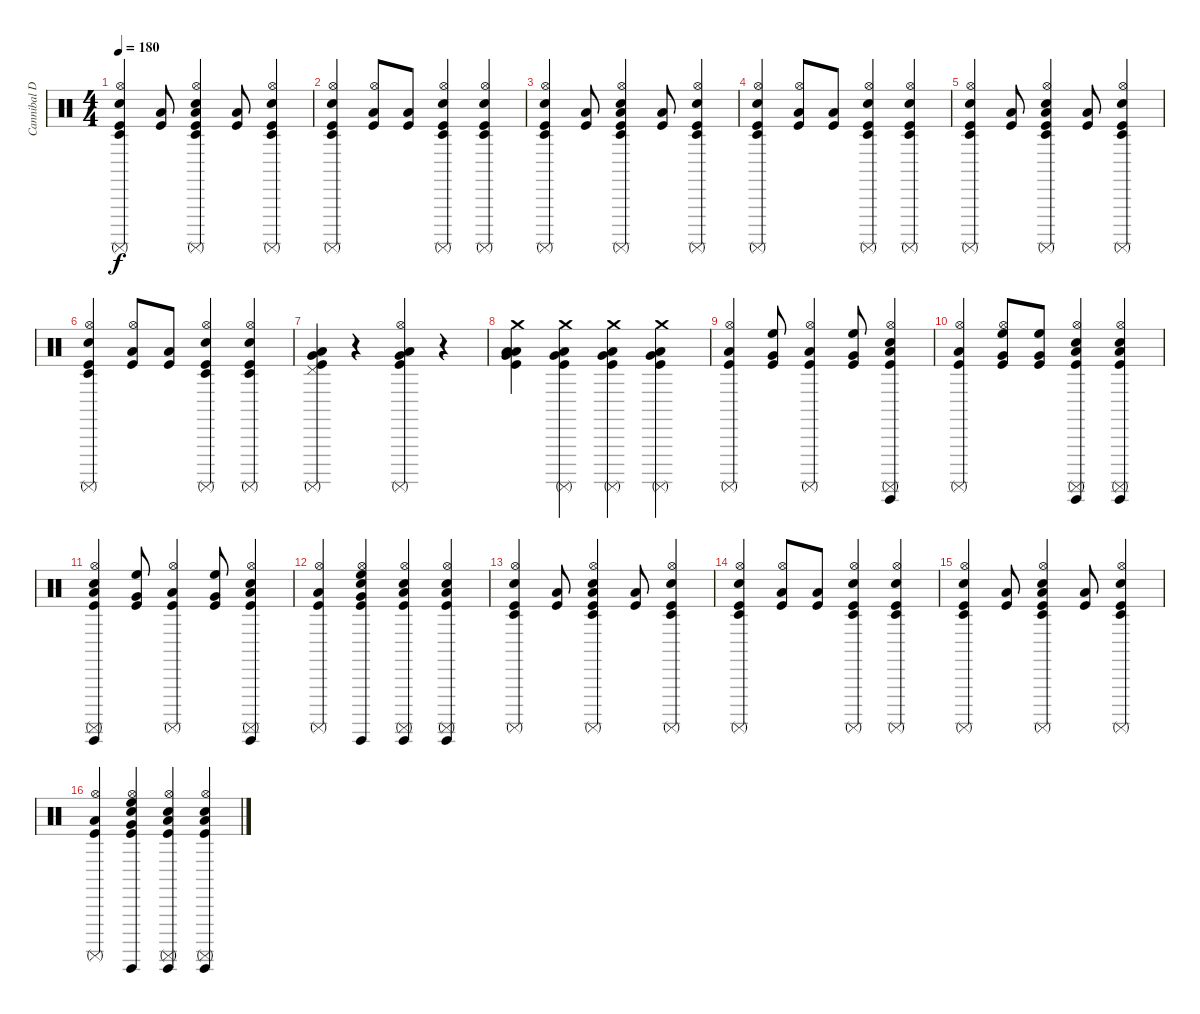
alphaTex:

\track ("Cannibal Drums :)" "Cannibal D") {instrument percussion}
\staff {score}
\articulation defaults
\ts (4 4)
\tempo 180
\clef neutral
\ks c
("Kick (hit)" "Hi-Hat (open)" "Surdo (mute)" "Timbale low (hit)" "Snare (hit) 2").4{dy f} ("Kick (hit)" "Low Floor Tom (hit)").8 ("Kick (hit)" "Hi-Hat (open)" "Timbale low (hit)" "Low Tom (hit)" "Snare (hit) 2" "Surdo (mute)").4 ("Kick (hit)" "Low Floor Tom (hit)").8 ("Kick (hit)" "Hi-Hat (open)" "Timbale low (hit)" "Surdo (mute)" "Snare (hit) 2").4 |
("Kick (hit)" "Hi-Hat (open)" "Timbale low (hit)" "Surdo (mute)" "Snare (hit) 2").4 ("Kick (hit)" "Hi-Hat (open)" "Low Floor Tom (hit)").8 ("Kick (hit)" "Low Floor Tom (hit)").8 ("Kick (hit)" "Hi-Hat (open)" "Timbale low (hit)" "Surdo (mute)" "Snare (hit) 2").4 ("Kick (hit)" "Hi-Hat (open)" "Timbale low (hit)" "Surdo (mute)" "Snare (hit) 2").4 |
("Kick (hit)" "Hi-Hat (open)" "Surdo (mute)" "Timbale low (hit)" "Snare (hit) 2").4 ("Kick (hit)" "Low Floor Tom (hit)").8 ("Kick (hit)" "Hi-Hat (open)" "Timbale low (hit)" "Low Tom (hit)" "Snare (hit) 2" "Surdo (mute)").4 ("Kick (hit)" "Low Floor Tom (hit)").8 ("Kick (hit)" "Hi-Hat (open)" "Timbale low (hit)" "Surdo (mute)" "Snare (hit) 2").4 |
("Kick (hit)" "Hi-Hat (open)" "Timbale low (hit)" "Surdo (mute)" "Snare (hit) 2").4 ("Kick (hit)" "Hi-Hat (open)" "Low Floor Tom (hit)").8 ("Kick (hit)" "Low Floor Tom (hit)").8 ("Kick (hit)" "Hi-Hat (open)" "Timbale low (hit)" "Surdo (mute)" "Snare (hit) 2").4 ("Kick (hit)" "Hi-Hat (open)" "Timbale low (hit)" "Surdo (mute)" "Snare (hit) 2").4 |
("Kick (hit)" "Hi-Hat (open)" "Surdo (mute)" "Timbale low (hit)" "Snare (hit) 2").4 ("Kick (hit)" "Low Floor Tom (hit)").8 ("Kick (hit)" "Hi-Hat (open)" "Timbale low (hit)" "Low Tom (hit)" "Snare (hit) 2" "Surdo (mute)").4 ("Kick (hit)" "Low Floor Tom (hit)").8 ("Kick (hit)" "Hi-Hat (open)" "Timbale low (hit)" "Surdo (mute)" "Snare (hit) 2").4 |
("Kick (hit)" "Hi-Hat (open)" "Timbale low (hit)" "Surdo (mute)" "Snare (hit) 2").4 ("Kick (hit)" "Hi-Hat (open)" "Low Floor Tom (hit)").8 ("Kick (hit)" "Low Floor Tom (hit)").8 ("Kick (hit)" "Hi-Hat (open)" "Timbale low (hit)" "Surdo (mute)" "Snare (hit) 2").4 ("Kick (hit)" "Hi-Hat (open)" "Timbale low (hit)" "Surdo (mute)" "Snare (hit) 2").4 |
("Kick (hit)" "Pedal Hi-Hat (hit)" "Low Tom (hit)" "Surdo (mute)" "Very Low Tom (hit)").4 r.4 ("Kick (hit)" "Hi-Hat (open)" "Low Tom (hit)" "Surdo (mute)" "Very Low Tom (hit)").4 r.4 |
("Kick (hit)" "Crash medium (hit)" "Low Tom (hit)" "Low Floor Tom (hit)" "Very Low Tom (hit)").4 ("Kick (hit)" "Crash medium (hit)" "Low Tom (hit)" "Surdo (mute)" "Very Low Tom (hit)").4 ("Kick (hit)" "Crash medium (hit)" "Low Tom (hit)" "Surdo (mute)" "Very Low Tom (hit)").4 ("Kick (hit)" "Crash medium (hit)" "Low Tom (hit)" "Surdo (mute)" "Very Low Tom (hit)").4 |
("Kick (hit)" "Hi-Hat (open)" "Low Tom (hit)" "Surdo (mute)").4 ("Kick (hit)" "High Floor Tom (hit)" "Very Low Tom (hit)").8 ("Kick (hit)" "Hi-Hat (open)" "Low Tom (hit)" "Surdo (mute)").4 ("Kick (hit)" "High Floor Tom (hit)" "Very Low Tom (hit)").8 ("Kick (hit)" "Hand Clap (hit)" "Guiro (hit)" "Low Tom (hit)" "Surdo (mute)" "Hi-Hat (open)").4 |
("Kick (hit)" "Low Tom (hit)" "Surdo (mute)" "Hi-Hat (open)").4 ("Kick (hit)" "High Floor Tom (hit)" "Very Low Tom (hit)" "Hi-Hat (open)").8 ("Kick (hit)" "High Floor Tom (hit)" "Very Low Tom (hit)").8 ("Kick (hit)" "Hand Clap (hit)" "Guiro (hit)" "Low Tom (hit)" "Surdo (mute)" "Hi-Hat (open)").4 ("Kick (hit)" "Hand Clap (hit)" "Guiro (hit)" "Low Tom (hit)" "Surdo (mute)" "Hi-Hat (open)").4 |
("Kick (hit)" "Hand Clap (hit)" "Guiro (hit)" "Low Tom (hit)" "Surdo (mute)" "Hi-Hat (open)").4 ("Kick (hit)" "High Floor Tom (hit)" "Very Low Tom (hit)").8 ("Kick (hit)" "Low Tom (hit)" "Hi-Hat (open)" "Surdo (mute)").4 ("Kick (hit)" "High Floor Tom (hit)" "Very Low Tom (hit)").8 ("Kick (hit)" "Hand Clap (hit)" "Guiro (hit)" "Low Tom (hit)" "Surdo (mute)" "Hi-Hat (open)").4 |
("Kick (hit)" "Low Tom (hit)" "Surdo (mute)" "Hi-Hat (open)").4 ("Kick (hit)" "Hand Clap (hit)" "Guiro (hit)" "High Floor Tom (hit)" "Very Low Tom (hit)" "Hi-Hat (open)").4 ("Kick (hit)" "Hand Clap (hit)" "Guiro (hit)" "Low Tom (hit)" "Surdo (mute)" "Hi-Hat (open)").4 ("Kick (hit)" "Hand Clap (hit)" "Guiro (hit)" "Low Tom (hit)" "Surdo (mute)" "Hi-Hat (open)").4 |
("Kick (hit)" "Hi-Hat (open)" "Surdo (mute)" "Timbale low (hit)" "Snare (hit) 2").4 ("Kick (hit)" "Low Floor Tom (hit)").8 ("Kick (hit)" "Hi-Hat (open)" "Timbale low (hit)" "Low Tom (hit)" "Snare (hit) 2" "Surdo (mute)").4 ("Kick (hit)" "Low Floor Tom (hit)").8 ("Kick (hit)" "Hi-Hat (open)" "Timbale low (hit)" "Surdo (mute)" "Snare (hit) 2").4 |
("Kick (hit)" "Hi-Hat (open)" "Timbale low (hit)" "Surdo (mute)" "Snare (hit) 2").4 ("Kick (hit)" "Hi-Hat (open)" "Low Floor Tom (hit)").8 ("Kick (hit)" "Low Floor Tom (hit)").8 ("Kick (hit)" "Hi-Hat (open)" "Timbale low (hit)" "Surdo (mute)" "Snare (hit) 2").4 ("Kick (hit)" "Hi-Hat (open)" "Timbale low (hit)" "Surdo (mute)" "Snare (hit) 2").4 |
("Kick (hit)" "Hi-Hat (open)" "Surdo (mute)" "Timbale low (hit)" "Snare (hit) 2").4 ("Kick (hit)" "Low Floor Tom (hit)").8 ("Kick (hit)" "Hi-Hat (open)" "Timbale low (hit)" "Low Tom (hit)" "Snare (hit) 2" "Surdo (mute)").4 ("Kick (hit)" "Low Floor Tom (hit)").8 ("Kick (hit)" "Hi-Hat (open)" "Timbale low (hit)" "Surdo (mute)" "Snare (hit) 2").4 |
("Kick (hit)" "Low Tom (hit)" "Surdo (mute)" "Hi-Hat (open)").4 ("Kick (hit)" "Hand Clap (hit)" "Guiro (hit)" "High Floor Tom (hit)" "Very Low Tom (hit)" "Hi-Hat (open)").4 ("Kick (hit)" "Hand Clap (hit)" "Guiro (hit)" "Low Tom (hit)" "Surdo (mute)" "Hi-Hat (open)").4 ("Kick (hit)" "Hand Clap (hit)" "Guiro (hit)" "Low Tom (hit)" "Surdo (mute)" "Hi-Hat (open)").4
